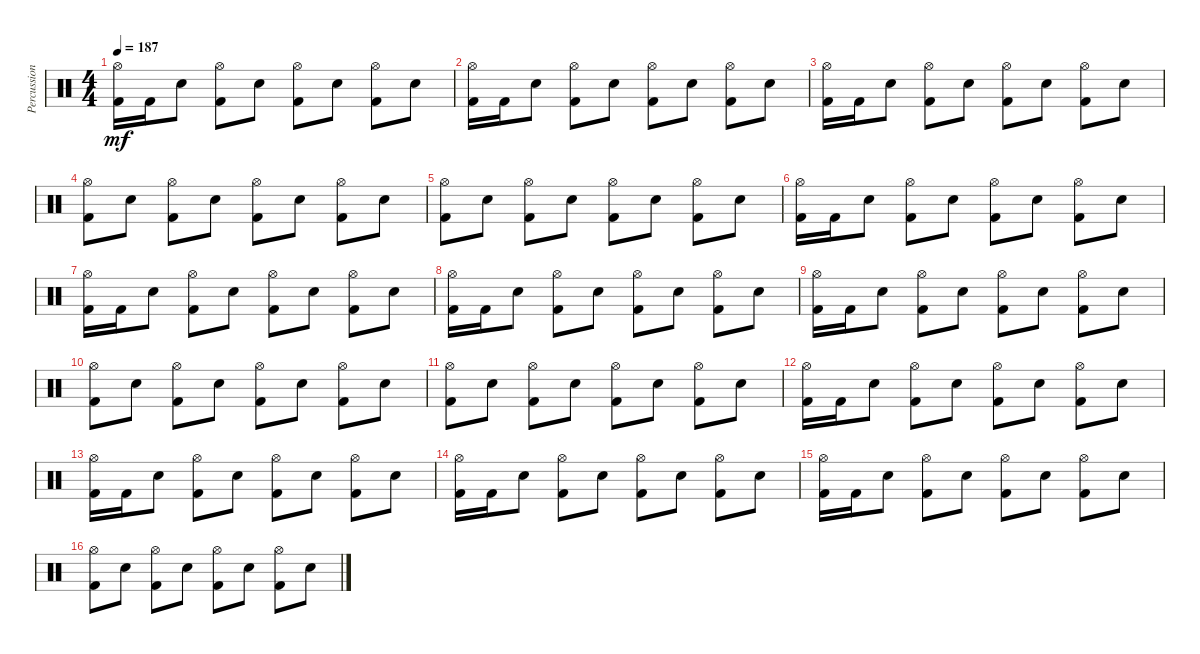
\track ("Percussion" "Percussion") {instrument percussion}
\staff {score}
\articulation defaults
\ts (4 4)
\tempo 187
\clef neutral
\ks c
("Hi-Hat (open)" "Kick (hit) 2").16{dy mf} "Kick (hit) 2".16 "Electric Snare (hit)".8 ("Hi-Hat (open)" "Kick (hit) 2").8 "Electric Snare (hit)".8 ("Hi-Hat (open)" "Kick (hit) 2").8 "Electric Snare (hit)".8 ("Hi-Hat (open)" "Kick (hit) 2").8 "Electric Snare (hit)".8 |
("Hi-Hat (open)" "Kick (hit) 2").16 "Kick (hit) 2".16 "Electric Snare (hit)".8 ("Hi-Hat (open)" "Kick (hit) 2").8 "Electric Snare (hit)".8 ("Hi-Hat (open)" "Kick (hit) 2").8 "Electric Snare (hit)".8 ("Hi-Hat (open)" "Kick (hit) 2").8 "Electric Snare (hit)".8 |
("Hi-Hat (open)" "Kick (hit) 2").16 "Kick (hit) 2".16 "Electric Snare (hit)".8 ("Hi-Hat (open)" "Kick (hit) 2").8 "Electric Snare (hit)".8 ("Hi-Hat (open)" "Kick (hit) 2").8 "Electric Snare (hit)".8 ("Hi-Hat (open)" "Kick (hit) 2").8 "Electric Snare (hit)".8 |
("Hi-Hat (open)" "Kick (hit) 2").8 "Electric Snare (hit)".8 ("Hi-Hat (open)" "Kick (hit) 2").8 "Electric Snare (hit)".8 ("Hi-Hat (open)" "Kick (hit) 2").8 "Electric Snare (hit)".8 ("Hi-Hat (open)" "Kick (hit) 2").8 "Electric Snare (hit)".8 |
("Hi-Hat (open)" "Kick (hit) 2").8 "Electric Snare (hit)".8 ("Hi-Hat (open)" "Kick (hit) 2").8 "Electric Snare (hit)".8 ("Hi-Hat (open)" "Kick (hit) 2").8 "Electric Snare (hit)".8 ("Hi-Hat (open)" "Kick (hit) 2").8 "Electric Snare (hit)".8 |
("Hi-Hat (open)" "Kick (hit) 2").16 "Kick (hit) 2".16 "Electric Snare (hit)".8 ("Hi-Hat (open)" "Kick (hit) 2").8 "Electric Snare (hit)".8 ("Hi-Hat (open)" "Kick (hit) 2").8 "Electric Snare (hit)".8 ("Hi-Hat (open)" "Kick (hit) 2").8 "Electric Snare (hit)".8 |
("Hi-Hat (open)" "Kick (hit) 2").16 "Kick (hit) 2".16 "Electric Snare (hit)".8 ("Hi-Hat (open)" "Kick (hit) 2").8 "Electric Snare (hit)".8 ("Hi-Hat (open)" "Kick (hit) 2").8 "Electric Snare (hit)".8 ("Hi-Hat (open)" "Kick (hit) 2").8 "Electric Snare (hit)".8 |
("Hi-Hat (open)" "Kick (hit) 2").16 "Kick (hit) 2".16 "Electric Snare (hit)".8 ("Hi-Hat (open)" "Kick (hit) 2").8 "Electric Snare (hit)".8 ("Hi-Hat (open)" "Kick (hit) 2").8 "Electric Snare (hit)".8 ("Hi-Hat (open)" "Kick (hit) 2").8 "Electric Snare (hit)".8 |
("Hi-Hat (open)" "Kick (hit) 2").16 "Kick (hit) 2".16 "Electric Snare (hit)".8 ("Hi-Hat (open)" "Kick (hit) 2").8 "Electric Snare (hit)".8 ("Hi-Hat (open)" "Kick (hit) 2").8 "Electric Snare (hit)".8 ("Hi-Hat (open)" "Kick (hit) 2").8 "Electric Snare (hit)".8 |
("Hi-Hat (open)" "Kick (hit) 2").8 "Electric Snare (hit)".8 ("Hi-Hat (open)" "Kick (hit) 2").8 "Electric Snare (hit)".8 ("Hi-Hat (open)" "Kick (hit) 2").8 "Electric Snare (hit)".8 ("Hi-Hat (open)" "Kick (hit) 2").8 "Electric Snare (hit)".8 |
("Hi-Hat (open)" "Kick (hit) 2").8 "Electric Snare (hit)".8 ("Hi-Hat (open)" "Kick (hit) 2").8 "Electric Snare (hit)".8 ("Hi-Hat (open)" "Kick (hit) 2").8 "Electric Snare (hit)".8 ("Hi-Hat (open)" "Kick (hit) 2").8 "Electric Snare (hit)".8 |
("Hi-Hat (open)" "Kick (hit) 2").16 "Kick (hit) 2".16 "Electric Snare (hit)".8 ("Hi-Hat (open)" "Kick (hit) 2").8 "Electric Snare (hit)".8 ("Hi-Hat (open)" "Kick (hit) 2").8 "Electric Snare (hit)".8 ("Hi-Hat (open)" "Kick (hit) 2").8 "Electric Snare (hit)".8 |
("Hi-Hat (open)" "Kick (hit) 2").16 "Kick (hit) 2".16 "Electric Snare (hit)".8 ("Hi-Hat (open)" "Kick (hit) 2").8 "Electric Snare (hit)".8 ("Hi-Hat (open)" "Kick (hit) 2").8 "Electric Snare (hit)".8 ("Hi-Hat (open)" "Kick (hit) 2").8 "Electric Snare (hit)".8 |
("Hi-Hat (open)" "Kick (hit) 2").16 "Kick (hit) 2".16 "Electric Snare (hit)".8 ("Hi-Hat (open)" "Kick (hit) 2").8 "Electric Snare (hit)".8 ("Hi-Hat (open)" "Kick (hit) 2").8 "Electric Snare (hit)".8 ("Hi-Hat (open)" "Kick (hit) 2").8 "Electric Snare (hit)".8 |
("Hi-Hat (open)" "Kick (hit) 2").16 "Kick (hit) 2".16 "Electric Snare (hit)".8 ("Hi-Hat (open)" "Kick (hit) 2").8 "Electric Snare (hit)".8 ("Hi-Hat (open)" "Kick (hit) 2").8 "Electric Snare (hit)".8 ("Hi-Hat (open)" "Kick (hit) 2").8 "Electric Snare (hit)".8 |
("Hi-Hat (open)" "Kick (hit) 2").8 "Electric Snare (hit)".8 ("Hi-Hat (open)" "Kick (hit) 2").8 "Electric Snare (hit)".8 ("Hi-Hat (open)" "Kick (hit) 2").8 "Electric Snare (hit)".8 ("Hi-Hat (open)" "Kick (hit) 2").8 "Electric Snare (hit)".8
